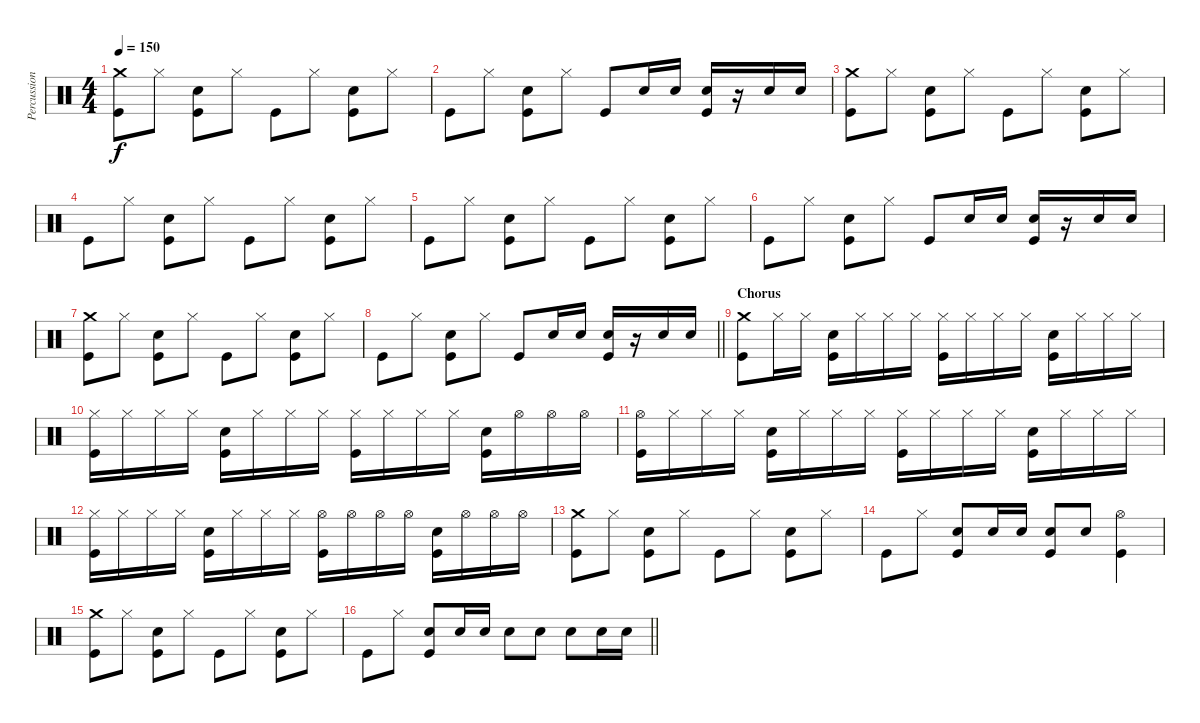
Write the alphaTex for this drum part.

\track ("Percussion" "Percussion") {instrument percussion}
\staff {score}
\articulation defaults
\ts (4 4)
\tempo 150
\clef neutral
\ks c
("Crash medium (hit)" "Kick (hit)").8{dy f} "Hi-Hat (closed)".8 ("Snare (hit) 2" "Kick (hit)").8 "Hi-Hat (closed)".8 "Kick (hit)".8 "Hi-Hat (closed)".8 ("Snare (hit) 2" "Kick (hit)").8 "Hi-Hat (closed)".8 |
"Kick (hit)".8 "Hi-Hat (closed)".8 ("Snare (hit) 2" "Kick (hit)").8 "Hi-Hat (closed)".8 "Kick (hit)".8 "Snare (hit) 2".16 "Snare (hit) 2".16 ("Snare (hit) 2" "Kick (hit)").16 r.16 "Snare (hit) 2".16 "Snare (hit) 2".16 |
("Crash medium (hit)" "Kick (hit)").8 "Hi-Hat (closed)".8 ("Snare (hit) 2" "Kick (hit)").8 "Hi-Hat (closed)".8 "Kick (hit)".8 "Hi-Hat (closed)".8 ("Snare (hit) 2" "Kick (hit)").8 "Hi-Hat (closed)".8 |
"Kick (hit)".8 "Hi-Hat (closed)".8 ("Snare (hit) 2" "Kick (hit)").8 "Hi-Hat (closed)".8 "Kick (hit)".8 "Hi-Hat (closed)".8 ("Snare (hit) 2" "Kick (hit)").8 "Hi-Hat (closed)".8 |
"Kick (hit)".8 "Hi-Hat (closed)".8 ("Snare (hit) 2" "Kick (hit)").8 "Hi-Hat (closed)".8 "Kick (hit)".8 "Hi-Hat (closed)".8 ("Snare (hit) 2" "Kick (hit)").8 "Hi-Hat (closed)".8 |
"Kick (hit)".8 "Hi-Hat (closed)".8 ("Snare (hit) 2" "Kick (hit)").8 "Hi-Hat (closed)".8 "Kick (hit)".8 "Snare (hit) 2".16 "Snare (hit) 2".16 ("Snare (hit) 2" "Kick (hit)").16 r.16 "Snare (hit) 2".16 "Snare (hit) 2".16 |
("Crash medium (hit)" "Kick (hit)").8 "Hi-Hat (closed)".8 ("Snare (hit) 2" "Kick (hit)").8 "Hi-Hat (closed)".8 "Kick (hit)".8 "Hi-Hat (closed)".8 ("Snare (hit) 2" "Kick (hit)").8 "Hi-Hat (closed)".8 |
\barLineRight lightlight "Kick (hit)".8 "Hi-Hat (closed)".8
("Snare (hit) 2" "Kick (hit)").8 "Hi-Hat (closed)".8 "Kick (hit)".8 "Snare (hit) 2".16 "Snare (hit) 2".16 ("Snare (hit) 2" "Kick (hit)").16 r.16 "Snare (hit) 2".16 "Snare (hit) 2".16 |
\section ("" "Chorus")
("Crash medium (hit)" "Kick (hit)").8 "Hi-Hat (closed)".16 "Hi-Hat (closed)".16 ("Snare (hit) 2" "Kick (hit)").16 "Hi-Hat (closed)".16 "Hi-Hat (closed)".16 "Hi-Hat (closed)".16 ("Hi-Hat (closed)" "Kick (hit)").16 "Hi-Hat (closed)".16 "Hi-Hat (closed)".16 "Hi-Hat (closed)".16 ("Snare (hit) 2" "Kick (hit)").16 "Hi-Hat (closed)".16 "Hi-Hat (closed)".16 "Hi-Hat (closed)".16 |
("Hi-Hat (closed)" "Kick (hit)").16 "Hi-Hat (closed)".16 "Hi-Hat (closed)".16 "Hi-Hat (closed)".16 ("Snare (hit) 2" "Kick (hit)").16 "Hi-Hat (closed)".16 "Hi-Hat (closed)".16 "Hi-Hat (closed)".16 ("Hi-Hat (closed)" "Kick (hit)").16 "Hi-Hat (closed)".16 "Hi-Hat (closed)".16 "Hi-Hat (closed)".16 ("Snare (hit) 2" "Kick (hit)").16 "Hi-Hat (open)".16 "Hi-Hat (open)".16 "Hi-Hat (open)".16 |
("Hi-Hat (open)" "Kick (hit)").16 "Hi-Hat (closed)".16 "Hi-Hat (closed)".16 "Hi-Hat (closed)".16 ("Snare (hit) 2" "Kick (hit)").16 "Hi-Hat (closed)".16 "Hi-Hat (closed)".16 "Hi-Hat (closed)".16 ("Hi-Hat (closed)" "Kick (hit)").16 "Hi-Hat (closed)".16 "Hi-Hat (closed)".16 "Hi-Hat (closed)".16 ("Snare (hit) 2" "Kick (hit)").16 "Hi-Hat (closed)".16 "Hi-Hat (closed)".16 "Hi-Hat (closed)".16 |
("Hi-Hat (closed)" "Kick (hit)").16 "Hi-Hat (closed)".16 "Hi-Hat (closed)".16 "Hi-Hat (closed)".16 ("Snare (hit) 2" "Kick (hit)").16 "Hi-Hat (closed)".16 "Hi-Hat (closed)".16 "Hi-Hat (closed)".16 ("Hi-Hat (open)" "Kick (hit)").16 "Hi-Hat (open)".16 "Hi-Hat (open)".16 "Hi-Hat (open)".16 ("Snare (hit) 2" "Kick (hit)").16 "Hi-Hat (open)".16 "Hi-Hat (open)".16 "Hi-Hat (open)".16 |
("Crash medium (hit)" "Kick (hit)").8 "Hi-Hat (closed)".8 ("Snare (hit) 2" "Kick (hit)").8 "Hi-Hat (closed)".8 "Kick (hit)".8 "Hi-Hat (closed)".8 ("Snare (hit) 2" "Kick (hit)").8 "Hi-Hat (closed)".8 |
"Kick (hit)".8 "Hi-Hat (closed)".8 ("Snare (hit) 2" "Kick (hit)").8 "Snare (hit) 2".16 "Snare (hit) 2".16 ("Snare (hit) 2" "Kick (hit)").8 "Snare (hit) 2".8 ("Hi-Hat (open)" "Kick (hit)").4 |
("Crash medium (hit)" "Kick (hit)").8 "Hi-Hat (closed)".8 ("Snare (hit) 2" "Kick (hit)").8 "Hi-Hat (closed)".8 "Kick (hit)".8 "Hi-Hat (closed)".8 ("Snare (hit) 2" "Kick (hit)").8 "Hi-Hat (closed)".8 |
\barLineRight lightlight "Kick (hit)".8 "Hi-Hat (closed)".8
("Snare (hit) 2" "Kick (hit)").8 "Snare (hit) 2".16 "Snare (hit) 2".16 "Snare (hit) 2".8 "Snare (hit) 2".8 "Snare (hit) 2".8 "Snare (hit) 2".16 "Snare (hit) 2".16
